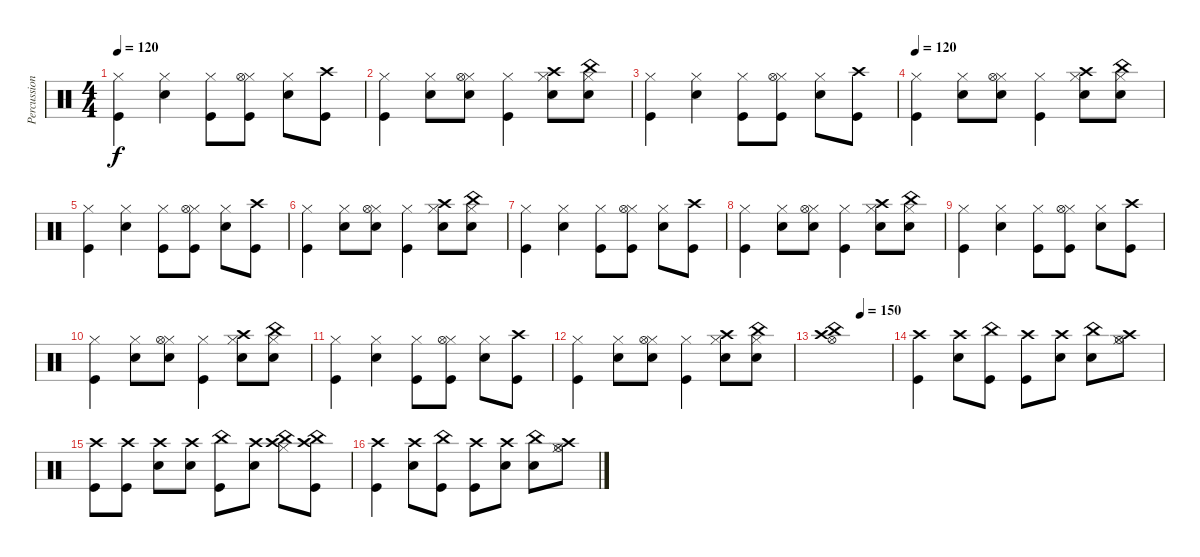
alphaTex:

\track ("Percussion" "Percussion") {instrument percussion}
\staff {score}
\articulation defaults
\ts (4 4)
\tempo 120
\clef neutral
\ks c
("Kick (hit)" "Hi-Hat (closed)").4{dy f} ("Snare (hit) 2" "Hi-Hat (closed)").4 ("Kick (hit)" "Hi-Hat (closed)").8 ("Kick (hit)" "Hi-Hat (closed)" "Hi-Hat (open)").8 ("Snare (hit) 2" "Hi-Hat (closed)").8 ("Kick (hit)" "Crash high (hit)").8 |
("Kick (hit)" "Hi-Hat (closed)").4 ("Snare (hit) 2" "Hi-Hat (closed)").8 ("Snare (hit) 2" "Hi-Hat (closed)" "Hi-Hat (open)").8 ("Kick (hit)" "Hi-Hat (closed)").4 ("Snare (hit) 2" "Hi-Hat (closed)" "Crash high (hit)").8 ("Snare (hit) 2" "Hi-Hat (closed)" "China (hit)").8 |
("Kick (hit)" "Hi-Hat (closed)").4 ("Snare (hit) 2" "Hi-Hat (closed)").4 ("Kick (hit)" "Hi-Hat (closed)").8 ("Kick (hit)" "Hi-Hat (closed)" "Hi-Hat (open)").8 ("Snare (hit) 2" "Hi-Hat (closed)").8 ("Kick (hit)" "Crash high (hit)").8 |
\tempo 120
("Kick (hit)" "Hi-Hat (closed)").4 ("Snare (hit) 2" "Hi-Hat (closed)").8 ("Snare (hit) 2" "Hi-Hat (closed)" "Hi-Hat (open)").8 ("Kick (hit)" "Hi-Hat (closed)").4 ("Snare (hit) 2" "Hi-Hat (closed)" "Crash high (hit)").8 ("Snare (hit) 2" "Hi-Hat (closed)" "China (hit)").8 |
("Kick (hit)" "Hi-Hat (closed)").4 ("Snare (hit) 2" "Hi-Hat (closed)").4 ("Kick (hit)" "Hi-Hat (closed)").8 ("Kick (hit)" "Hi-Hat (closed)" "Hi-Hat (open)").8 ("Snare (hit) 2" "Hi-Hat (closed)").8 ("Kick (hit)" "Crash high (hit)").8 |
("Kick (hit)" "Hi-Hat (closed)").4 ("Snare (hit) 2" "Hi-Hat (closed)").8 ("Snare (hit) 2" "Hi-Hat (closed)" "Hi-Hat (open)").8 ("Kick (hit)" "Hi-Hat (closed)").4 ("Snare (hit) 2" "Hi-Hat (closed)" "Crash high (hit)").8 ("Snare (hit) 2" "Hi-Hat (closed)" "China (hit)").8 |
("Kick (hit)" "Hi-Hat (closed)").4 ("Snare (hit) 2" "Hi-Hat (closed)").4 ("Kick (hit)" "Hi-Hat (closed)").8 ("Kick (hit)" "Hi-Hat (closed)" "Hi-Hat (open)").8 ("Snare (hit) 2" "Hi-Hat (closed)").8 ("Kick (hit)" "Crash high (hit)").8 |
("Kick (hit)" "Hi-Hat (closed)").4 ("Snare (hit) 2" "Hi-Hat (closed)").8 ("Snare (hit) 2" "Hi-Hat (closed)" "Hi-Hat (open)").8 ("Kick (hit)" "Hi-Hat (closed)").4 ("Snare (hit) 2" "Hi-Hat (closed)" "Crash high (hit)").8 ("Snare (hit) 2" "Hi-Hat (closed)" "China (hit)").8 |
("Kick (hit)" "Hi-Hat (closed)").4 ("Snare (hit) 2" "Hi-Hat (closed)").4 ("Kick (hit)" "Hi-Hat (closed)").8 ("Kick (hit)" "Hi-Hat (closed)" "Hi-Hat (open)").8 ("Snare (hit) 2" "Hi-Hat (closed)").8 ("Kick (hit)" "Crash high (hit)").8 |
("Kick (hit)" "Hi-Hat (closed)").4 ("Snare (hit) 2" "Hi-Hat (closed)").8 ("Snare (hit) 2" "Hi-Hat (closed)" "Hi-Hat (open)").8 ("Kick (hit)" "Hi-Hat (closed)").4 ("Snare (hit) 2" "Hi-Hat (closed)" "Crash high (hit)").8 ("Snare (hit) 2" "Hi-Hat (closed)" "China (hit)").8 |
("Kick (hit)" "Hi-Hat (closed)").4 ("Snare (hit) 2" "Hi-Hat (closed)").4 ("Kick (hit)" "Hi-Hat (closed)").8 ("Kick (hit)" "Hi-Hat (closed)" "Hi-Hat (open)").8 ("Snare (hit) 2" "Hi-Hat (closed)").8 ("Kick (hit)" "Crash high (hit)").8 |
("Kick (hit)" "Hi-Hat (closed)").4 ("Snare (hit) 2" "Hi-Hat (closed)").8 ("Snare (hit) 2" "Hi-Hat (closed)" "Hi-Hat (open)").8 ("Kick (hit)" "Hi-Hat (closed)").4 ("Snare (hit) 2" "Hi-Hat (closed)" "Crash high (hit)").8 ("Snare (hit) 2" "Hi-Hat (closed)" "China (hit)").8 |
\tempo (150 0.5)
("Hi-Hat (open)" "Crash high (hit)" "China (hit)").1 |
("Kick (hit)" "Crash high (hit)").4 ("Snare (hit) 2" "Crash high (hit)").8 ("Kick (hit)" "China (hit)").8 ("Kick (hit)" "Crash high (hit)").8 ("Snare (hit) 2" "Crash high (hit)").8 ("Snare (hit) 2" "China (hit)").8 ("Hi-Hat (closed)" "Hi-Hat (open)" "Crash high (hit)").8 |
("Kick (hit)" "Crash high (hit)").8 ("Kick (hit)" "Crash high (hit)").8 ("Snare (hit) 2" "Crash high (hit)").8 ("Snare (hit) 2" "Crash high (hit)").8 ("Kick (hit)" "China (hit)").8 ("Snare (hit) 2" "Crash high (hit)").8 ("Hi-Hat (closed)" "Crash high (hit)" "China (hit)").8 ("Kick (hit)" "China (hit)" "Crash high (hit)").8 |
("Kick (hit)" "Crash high (hit)").4 ("Snare (hit) 2" "Crash high (hit)").8 ("Kick (hit)" "China (hit)").8 ("Kick (hit)" "Crash high (hit)").8 ("Snare (hit) 2" "Crash high (hit)").8 ("Snare (hit) 2" "China (hit)").8 ("Hi-Hat (closed)" "Hi-Hat (open)" "Crash high (hit)").8
